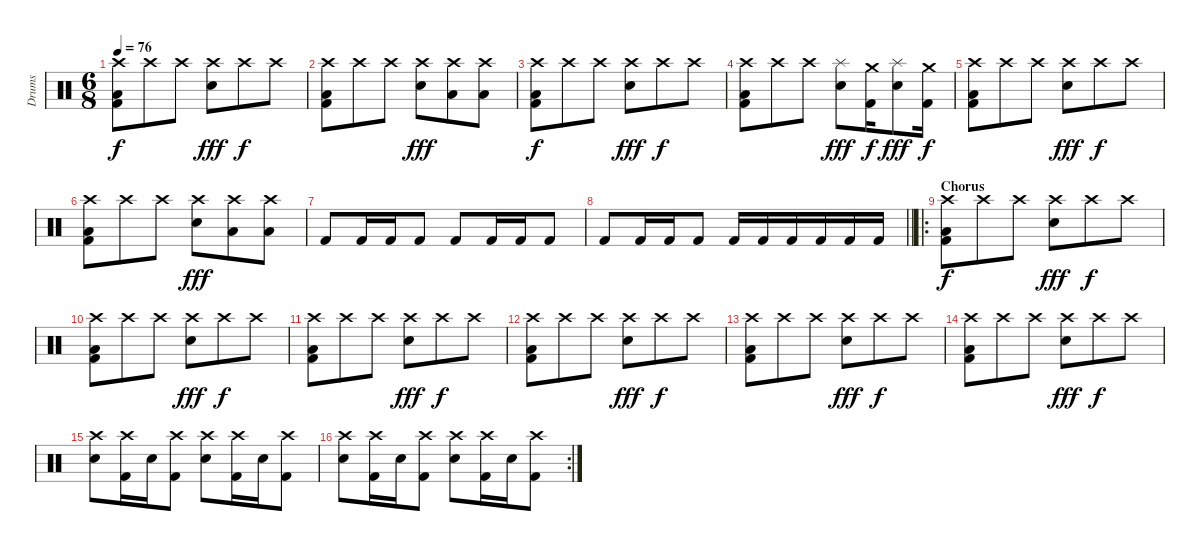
\track ("Drums" "Drums") {instrument percussion}
\staff {score}
\articulation defaults
\ts (6 8)
\tempo 76
\clef neutral
\ks c
("Crash high (hit)" "Low Floor Tom (hit)" "Kick (hit) 2").8{dy f} "Crash high (hit)".8 "Crash high (hit)".8 ("Crash high (hit)" "Snare (hit) 2").8{dy fff} "Crash high (hit)".8{dy f} "Crash high (hit)".8 |
("Crash high (hit)" "Low Floor Tom (hit)" "Kick (hit) 2").8 "Crash high (hit)".8 "Crash high (hit)".8 ("Crash high (hit)" "Snare (hit) 2").8{dy fff} ("Crash high (hit)" "Low Tom (hit)").8 ("Crash high (hit)" "Low Tom (hit)").8 |
("Crash high (hit)" "Low Floor Tom (hit)" "Kick (hit) 2").8{dy f} "Crash high (hit)".8 "Crash high (hit)".8 ("Crash high (hit)" "Snare (hit) 2").8{dy fff} "Crash high (hit)".8{dy f} "Crash high (hit)".8 |
("Crash high (hit)" "Low Floor Tom (hit)" "Kick (hit) 2").8 "Crash high (hit)".8 "Crash high (hit)".8 ("Splash (hit)" "Snare (hit) 2").8{dy fff} ("Crash medium (hit)" "Kick (hit) 2").16{dy f} ("Splash (hit)" "Snare (hit) 2").8{dy fff} ("Crash medium (hit)" "Kick (hit) 2").16{dy f} |
("Crash high (hit)" "Low Floor Tom (hit)" "Kick (hit) 2").8 "Crash high (hit)".8 "Crash high (hit)".8 ("Crash high (hit)" "Snare (hit) 2").8{dy fff} "Crash high (hit)".8{dy f} "Crash high (hit)".8 |
("Crash high (hit)" "Low Floor Tom (hit)" "Kick (hit) 2").8 "Crash high (hit)".8 "Crash high (hit)".8 ("Crash high (hit)" "Snare (hit) 2").8{dy fff} ("Crash high (hit)" "Low Tom (hit)").8 ("Crash high (hit)" "Low Tom (hit)").8 |
"Kick (hit) 2".8 "Kick (hit) 2".16 "Kick (hit) 2".16 "Kick (hit) 2".8 "Kick (hit) 2".8 "Kick (hit) 2".16 "Kick (hit) 2".16 "Kick (hit) 2".8 |
\barLineRight lightlight "Kick (hit) 2".8 "Kick (hit) 2".16 "Kick (hit) 2".16 "Kick (hit) 2".8 "Kick (hit) 2".16 "Kick (hit) 2".16 "Kick (hit) 2".16 "Kick (hit) 2".16 "Kick (hit) 2".16 "Kick (hit) 2".16
|
\ro
\section ("" "Chorus")
("Crash high (hit)" "Low Floor Tom (hit)" "Kick (hit) 2").8{dy f} "Crash high (hit)".8 "Crash high (hit)".8 ("Crash high (hit)" "Snare (hit) 2").8{dy fff} "Crash high (hit)".8{dy f} "Crash high (hit)".8 |
("Crash high (hit)" "Low Floor Tom (hit)" "Kick (hit) 2").8 "Crash high (hit)".8 "Crash high (hit)".8 ("Crash high (hit)" "Snare (hit) 2").8{dy fff} "Crash high (hit)".8{dy f} "Crash high (hit)".8 |
("Crash high (hit)" "Low Floor Tom (hit)" "Kick (hit) 2").8 "Crash high (hit)".8 "Crash high (hit)".8 ("Crash high (hit)" "Snare (hit) 2").8{dy fff} "Crash high (hit)".8{dy f} "Crash high (hit)".8 |
("Crash high (hit)" "Low Floor Tom (hit)" "Kick (hit) 2").8 "Crash high (hit)".8 "Crash high (hit)".8 ("Crash high (hit)" "Snare (hit) 2").8{dy fff} "Crash high (hit)".8{dy f} "Crash high (hit)".8 |
("Crash high (hit)" "Low Floor Tom (hit)" "Kick (hit) 2").8 "Crash high (hit)".8 "Crash high (hit)".8 ("Crash high (hit)" "Snare (hit) 2").8{dy fff} "Crash high (hit)".8{dy f} "Crash high (hit)".8 |
("Crash high (hit)" "Low Floor Tom (hit)" "Kick (hit) 2").8 "Crash high (hit)".8 "Crash high (hit)".8 ("Crash high (hit)" "Snare (hit) 2").8{dy fff} "Crash high (hit)".8{dy f} "Crash high (hit)".8 |
("Crash high (hit)" "Snare (hit) 2").8 ("Crash high (hit)" "Kick (hit) 2").16 "Snare (hit) 2".16 ("Crash high (hit)" "Kick (hit) 2").8 ("Crash high (hit)" "Snare (hit) 2").8 ("Crash high (hit)" "Kick (hit) 2").16 "Snare (hit) 2".16 ("Crash high (hit)" "Kick (hit) 2").8 |
\rc 2
("Crash high (hit)" "Snare (hit) 2").8 ("Crash high (hit)" "Kick (hit) 2").16 "Snare (hit) 2".16 ("Crash high (hit)" "Kick (hit) 2").8 ("Crash high (hit)" "Snare (hit) 2").8 ("Crash high (hit)" "Kick (hit) 2").16 "Snare (hit) 2".16 ("Crash high (hit)" "Kick (hit) 2").8
